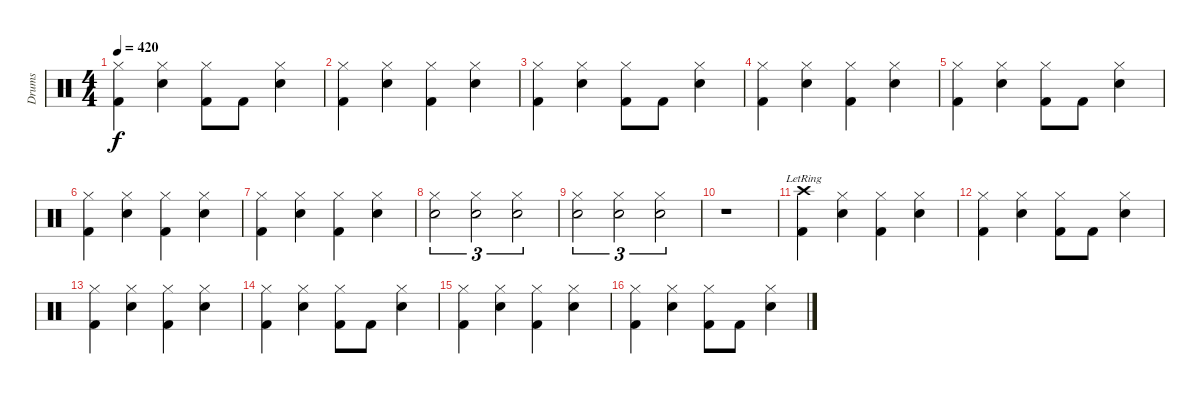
\track ("Drums" "Drums") {instrument percussion}
\staff {score}
\articulation defaults
\ts (4 4)
\tempo 420
\clef neutral
\ks c
("Hi-Hat (closed)" "Kick (hit) 2").4{dy f} ("Hi-Hat (closed)" "Snare (hit) 2").4 ("Hi-Hat (closed)" "Kick (hit) 2").8 "Kick (hit) 2".8 ("Hi-Hat (closed)" "Snare (hit) 2").4 |
("Hi-Hat (closed)" "Kick (hit) 2").4 ("Hi-Hat (closed)" "Snare (hit) 2").4 ("Hi-Hat (closed)" "Kick (hit) 2").4 ("Hi-Hat (closed)" "Snare (hit) 2").4 |
("Hi-Hat (closed)" "Kick (hit) 2").4 ("Hi-Hat (closed)" "Snare (hit) 2").4 ("Hi-Hat (closed)" "Kick (hit) 2").8 "Kick (hit) 2".8 ("Hi-Hat (closed)" "Snare (hit) 2").4 |
("Hi-Hat (closed)" "Kick (hit) 2").4 ("Hi-Hat (closed)" "Snare (hit) 2").4 ("Hi-Hat (closed)" "Kick (hit) 2").4 ("Hi-Hat (closed)" "Snare (hit) 2").4 |
("Hi-Hat (closed)" "Kick (hit) 2").4 ("Hi-Hat (closed)" "Snare (hit) 2").4 ("Hi-Hat (closed)" "Kick (hit) 2").8 "Kick (hit) 2".8 ("Hi-Hat (closed)" "Snare (hit) 2").4 |
("Hi-Hat (closed)" "Kick (hit) 2").4 ("Hi-Hat (closed)" "Snare (hit) 2").4 ("Hi-Hat (closed)" "Kick (hit) 2").4 ("Hi-Hat (closed)" "Snare (hit) 2").4 |
("Hi-Hat (closed)" "Kick (hit) 2").4 ("Hi-Hat (closed)" "Snare (hit) 2").4 ("Hi-Hat (closed)" "Kick (hit) 2").4 ("Hi-Hat (closed)" "Snare (hit) 2").4 |
("Hi-Hat (closed)" "Snare (hit) 2").2{tu (3 2)} ("Hi-Hat (closed)" "Snare (hit) 2").2{tu (3 2)} ("Hi-Hat (closed)" "Snare (hit) 2").2{tu (3 2)} |
("Hi-Hat (closed)" "Snare (hit) 2").2{tu (3 2)} ("Hi-Hat (closed)" "Snare (hit) 2").2{tu (3 2)} ("Hi-Hat (closed)" "Snare (hit) 2").2{tu (3 2)} |
r.1 |
("Crash high (hit)"{lr} "Kick (hit) 2").4 ("Hi-Hat (closed)" "Snare (hit) 2").4 ("Hi-Hat (closed)" "Kick (hit) 2").4 ("Hi-Hat (closed)" "Snare (hit) 2").4 |
("Hi-Hat (closed)" "Kick (hit) 2").4 ("Hi-Hat (closed)" "Snare (hit) 2").4 ("Hi-Hat (closed)" "Kick (hit) 2").8 "Kick (hit) 2".8 ("Hi-Hat (closed)" "Snare (hit) 2").4 |
("Hi-Hat (closed)" "Kick (hit) 2").4 ("Hi-Hat (closed)" "Snare (hit) 2").4 ("Hi-Hat (closed)" "Kick (hit) 2").4 ("Hi-Hat (closed)" "Snare (hit) 2").4 |
("Hi-Hat (closed)" "Kick (hit) 2").4 ("Hi-Hat (closed)" "Snare (hit) 2").4 ("Hi-Hat (closed)" "Kick (hit) 2").8 "Kick (hit) 2".8 ("Hi-Hat (closed)" "Snare (hit) 2").4 |
("Hi-Hat (closed)" "Kick (hit) 2").4 ("Hi-Hat (closed)" "Snare (hit) 2").4 ("Hi-Hat (closed)" "Kick (hit) 2").4 ("Hi-Hat (closed)" "Snare (hit) 2").4 |
("Hi-Hat (closed)" "Kick (hit) 2").4 ("Hi-Hat (closed)" "Snare (hit) 2").4 ("Hi-Hat (closed)" "Kick (hit) 2").8 "Kick (hit) 2".8 ("Hi-Hat (closed)" "Snare (hit) 2").4
